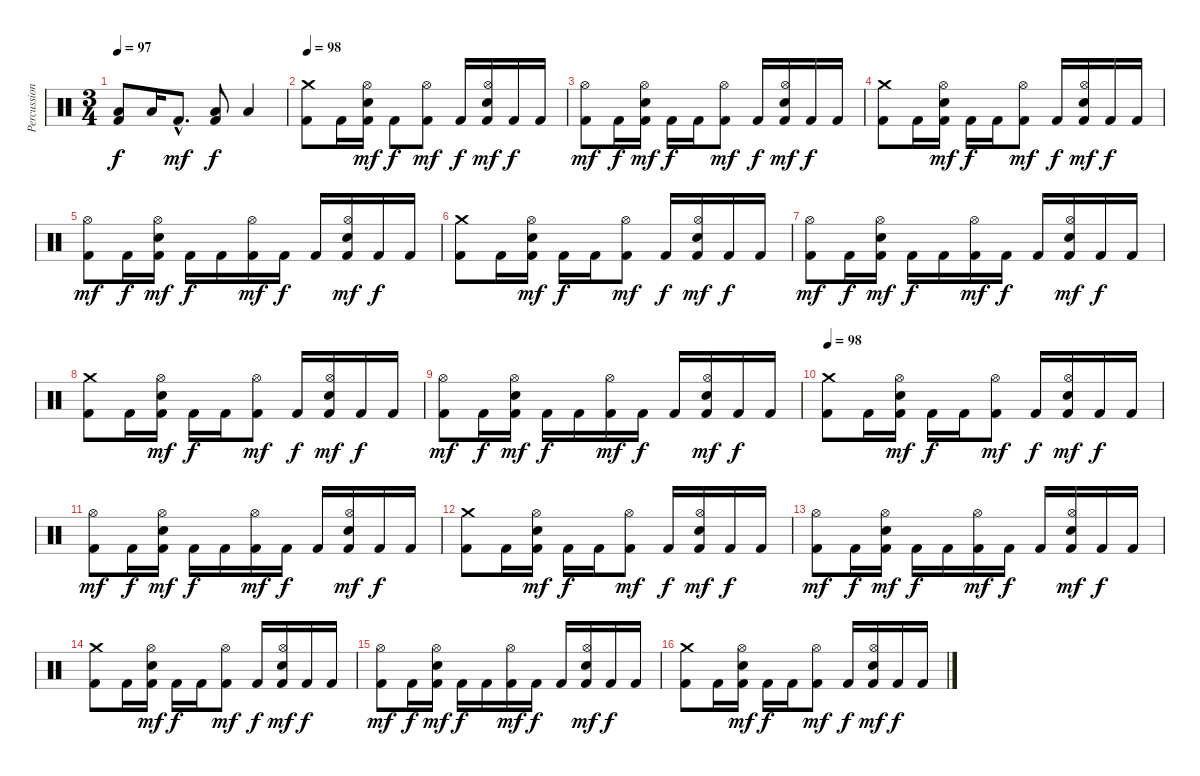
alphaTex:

\track ("Percussion" "Percussion") {instrument percussion}
\staff {score}
\articulation defaults
\ts (3 4)
\tempo 97
\clef neutral
\ks c
("Low Floor Tom (hit)" "Kick (hit) 2").8{dy f} "Low Floor Tom (hit)".16 "Kick (hit) 2"{hac}.8{d dy mf} ("Low Floor Tom (hit)" "Kick (hit) 2").8{dy f} "Low Floor Tom (hit)".4 |
\tempo 98
("Crash medium (hit)" "Kick (hit) 2").8 "Kick (hit) 2".16 ("Hi-Hat (open)" "Electric Snare (hit)" "Kick (hit) 2").16{dy mf} "Kick (hit) 2".8{dy f} ("Hi-Hat (open)" "Kick (hit) 2").8{dy mf} "Kick (hit) 2".16{dy f} ("Hi-Hat (open)" "Electric Snare (hit)" "Kick (hit) 2").16{dy mf} "Kick (hit) 2".16{dy f} "Kick (hit) 2".16 |
("Hi-Hat (open)" "Kick (hit) 2").8{dy mf} "Kick (hit) 2".16{dy f} ("Hi-Hat (open)" "Electric Snare (hit)" "Kick (hit) 2").16{dy mf} "Kick (hit) 2".16{dy f} "Kick (hit) 2".16 ("Hi-Hat (open)" "Kick (hit) 2").8{dy mf} "Kick (hit) 2".16{dy f} ("Hi-Hat (open)" "Electric Snare (hit)" "Kick (hit) 2").16{dy mf} "Kick (hit) 2".16{dy f} "Kick (hit) 2".16 |
("Crash medium (hit)" "Kick (hit) 2").8 "Kick (hit) 2".16 ("Hi-Hat (open)" "Electric Snare (hit)" "Kick (hit) 2").16{dy mf} "Kick (hit) 2".16{dy f} "Kick (hit) 2".16 ("Hi-Hat (open)" "Kick (hit) 2").8{dy mf} "Kick (hit) 2".16{dy f} ("Hi-Hat (open)" "Electric Snare (hit)" "Kick (hit) 2").16{dy mf} "Kick (hit) 2".16{dy f} "Kick (hit) 2".16 |
("Hi-Hat (open)" "Kick (hit) 2").8{dy mf} "Kick (hit) 2".16{dy f} ("Hi-Hat (open)" "Electric Snare (hit)" "Kick (hit) 2").16{dy mf} "Kick (hit) 2".16{dy f} "Kick (hit) 2".16 ("Hi-Hat (open)" "Kick (hit) 2").16{dy mf} "Kick (hit) 2".16{dy f} "Kick (hit) 2".16 ("Hi-Hat (open)" "Electric Snare (hit)" "Kick (hit) 2").16{dy mf} "Kick (hit) 2".16{dy f} "Kick (hit) 2".16 |
("Crash medium (hit)" "Kick (hit) 2").8 "Kick (hit) 2".16 ("Hi-Hat (open)" "Electric Snare (hit)" "Kick (hit) 2").16{dy mf} "Kick (hit) 2".16{dy f} "Kick (hit) 2".16 ("Hi-Hat (open)" "Kick (hit) 2").8{dy mf} "Kick (hit) 2".16{dy f} ("Hi-Hat (open)" "Electric Snare (hit)" "Kick (hit) 2").16{dy mf} "Kick (hit) 2".16{dy f} "Kick (hit) 2".16 |
("Hi-Hat (open)" "Kick (hit) 2").8{dy mf} "Kick (hit) 2".16{dy f} ("Hi-Hat (open)" "Electric Snare (hit)" "Kick (hit) 2").16{dy mf} "Kick (hit) 2".16{dy f} "Kick (hit) 2".16 ("Hi-Hat (open)" "Kick (hit) 2").16{dy mf} "Kick (hit) 2".16{dy f} "Kick (hit) 2".16 ("Hi-Hat (open)" "Electric Snare (hit)" "Kick (hit) 2").16{dy mf} "Kick (hit) 2".16{dy f} "Kick (hit) 2".16 |
("Crash medium (hit)" "Kick (hit) 2").8 "Kick (hit) 2".16 ("Hi-Hat (open)" "Electric Snare (hit)" "Kick (hit) 2").16{dy mf} "Kick (hit) 2".16{dy f} "Kick (hit) 2".16 ("Hi-Hat (open)" "Kick (hit) 2").8{dy mf} "Kick (hit) 2".16{dy f} ("Hi-Hat (open)" "Electric Snare (hit)" "Kick (hit) 2").16{dy mf} "Kick (hit) 2".16{dy f} "Kick (hit) 2".16 |
("Hi-Hat (open)" "Kick (hit) 2").8{dy mf} "Kick (hit) 2".16{dy f} ("Hi-Hat (open)" "Electric Snare (hit)" "Kick (hit) 2").16{dy mf} "Kick (hit) 2".16{dy f} "Kick (hit) 2".16 ("Hi-Hat (open)" "Kick (hit) 2").16{dy mf} "Kick (hit) 2".16{dy f} "Kick (hit) 2".16 ("Hi-Hat (open)" "Electric Snare (hit)" "Kick (hit) 2").16{dy mf} "Kick (hit) 2".16{dy f} "Kick (hit) 2".16 |
\tempo 98
("Crash medium (hit)" "Kick (hit) 2").8 "Kick (hit) 2".16 ("Hi-Hat (open)" "Electric Snare (hit)" "Kick (hit) 2").16{dy mf} "Kick (hit) 2".16{dy f} "Kick (hit) 2".16 ("Hi-Hat (open)" "Kick (hit) 2").8{dy mf} "Kick (hit) 2".16{dy f} ("Hi-Hat (open)" "Electric Snare (hit)" "Kick (hit) 2").16{dy mf} "Kick (hit) 2".16{dy f} "Kick (hit) 2".16 |
("Hi-Hat (open)" "Kick (hit) 2").8{dy mf} "Kick (hit) 2".16{dy f} ("Hi-Hat (open)" "Electric Snare (hit)" "Kick (hit) 2").16{dy mf} "Kick (hit) 2".16{dy f} "Kick (hit) 2".16 ("Hi-Hat (open)" "Kick (hit) 2").16{dy mf} "Kick (hit) 2".16{dy f} "Kick (hit) 2".16 ("Hi-Hat (open)" "Electric Snare (hit)" "Kick (hit) 2").16{dy mf} "Kick (hit) 2".16{dy f} "Kick (hit) 2".16 |
("Crash medium (hit)" "Kick (hit) 2").8 "Kick (hit) 2".16 ("Hi-Hat (open)" "Electric Snare (hit)" "Kick (hit) 2").16{dy mf} "Kick (hit) 2".16{dy f} "Kick (hit) 2".16 ("Hi-Hat (open)" "Kick (hit) 2").8{dy mf} "Kick (hit) 2".16{dy f} ("Hi-Hat (open)" "Electric Snare (hit)" "Kick (hit) 2").16{dy mf} "Kick (hit) 2".16{dy f} "Kick (hit) 2".16 |
("Hi-Hat (open)" "Kick (hit) 2").8{dy mf} "Kick (hit) 2".16{dy f} ("Hi-Hat (open)" "Electric Snare (hit)" "Kick (hit) 2").16{dy mf} "Kick (hit) 2".16{dy f} "Kick (hit) 2".16 ("Hi-Hat (open)" "Kick (hit) 2").16{dy mf} "Kick (hit) 2".16{dy f} "Kick (hit) 2".16 ("Hi-Hat (open)" "Electric Snare (hit)" "Kick (hit) 2").16{dy mf} "Kick (hit) 2".16{dy f} "Kick (hit) 2".16 |
("Crash medium (hit)" "Kick (hit) 2").8 "Kick (hit) 2".16 ("Hi-Hat (open)" "Electric Snare (hit)" "Kick (hit) 2").16{dy mf} "Kick (hit) 2".16{dy f} "Kick (hit) 2".16 ("Hi-Hat (open)" "Kick (hit) 2").8{dy mf} "Kick (hit) 2".16{dy f} ("Hi-Hat (open)" "Electric Snare (hit)" "Kick (hit) 2").16{dy mf} "Kick (hit) 2".16{dy f} "Kick (hit) 2".16 |
("Hi-Hat (open)" "Kick (hit) 2").8{dy mf} "Kick (hit) 2".16{dy f} ("Hi-Hat (open)" "Electric Snare (hit)" "Kick (hit) 2").16{dy mf} "Kick (hit) 2".16{dy f} "Kick (hit) 2".16 ("Hi-Hat (open)" "Kick (hit) 2").16{dy mf} "Kick (hit) 2".16{dy f} "Kick (hit) 2".16 ("Hi-Hat (open)" "Electric Snare (hit)" "Kick (hit) 2").16{dy mf} "Kick (hit) 2".16{dy f} "Kick (hit) 2".16 |
("Crash medium (hit)" "Kick (hit) 2").8 "Kick (hit) 2".16 ("Hi-Hat (open)" "Electric Snare (hit)" "Kick (hit) 2").16{dy mf} "Kick (hit) 2".16{dy f} "Kick (hit) 2".16 ("Hi-Hat (open)" "Kick (hit) 2").8{dy mf} "Kick (hit) 2".16{dy f} ("Hi-Hat (open)" "Electric Snare (hit)" "Kick (hit) 2").16{dy mf} "Kick (hit) 2".16{dy f} "Kick (hit) 2".16
